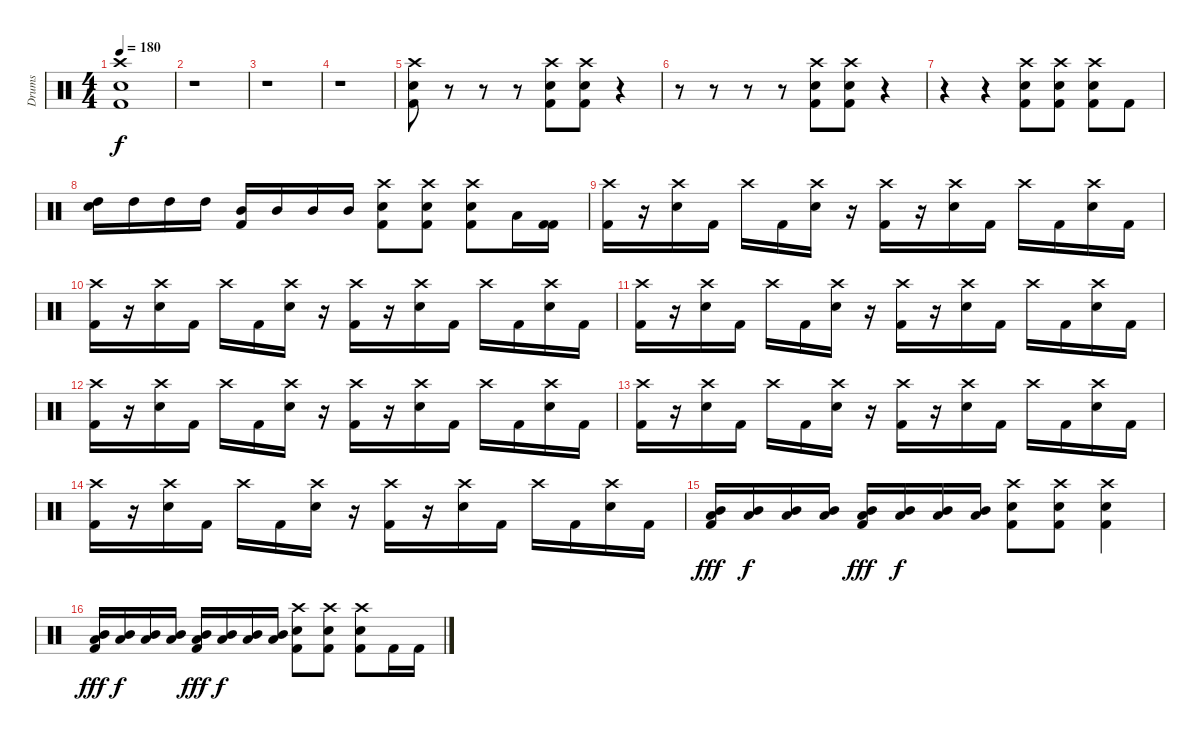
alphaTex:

\track ("Drums" "Drums") {instrument percussion}
\staff {score}
\articulation defaults
\ts (4 4)
\tempo 180
\clef neutral
\ks c
("Crash high (hit)" "Electric Snare (hit)" "Kick (hit) 2").1{dy f} |
r.1 |
r.1 |
r.1 |
("Crash high (hit)" "Electric Snare (hit)" "Kick (hit) 2").8 r.8 r.8 r.8 ("Crash high (hit)" "Electric Snare (hit)" "Kick (hit) 2").8 ("Crash high (hit)" "Electric Snare (hit)" "Kick (hit) 2").8 r.4 |
r.8 r.8 r.8 r.8 ("Crash high (hit)" "Electric Snare (hit)" "Kick (hit) 2").8 ("Crash high (hit)" "Electric Snare (hit)" "Kick (hit) 2").8 r.4 |
r.4 r.4 ("Crash high (hit)" "Electric Snare (hit)" "Kick (hit) 2").8 ("Crash high (hit)" "Electric Snare (hit)" "Kick (hit) 2").8 ("Crash high (hit)" "Electric Snare (hit)" "Kick (hit) 2").8 "Kick (hit) 2".8 |
("Electric Snare (hit)" "High Tom (hit)").16 "High Tom (hit)".16 "High Tom (hit)".16 "High Tom (hit)".16 ("Mid Tom (hit)" "Kick (hit) 2").16 "Mid Tom (hit)".16 "Mid Tom (hit)".16 "Mid Tom (hit)".16 ("Crash high (hit)" "Electric Snare (hit)" "Kick (hit) 2").8 ("Crash high (hit)" "Electric Snare (hit)" "Kick (hit) 2").8 ("Crash high (hit)" "Electric Snare (hit)" "Kick (hit) 2").8 "Low Tom (hit)".16 ("Kick (hit) 2" "Kick (hit) 2").16 |
("Crash high (hit)" "Kick (hit) 2").16 r.16 ("Crash high (hit)" "Electric Snare (hit)").16 "Kick (hit) 2".16 "Crash high (hit)".16 "Kick (hit) 2".16 ("Crash high (hit)" "Electric Snare (hit)").16 r.16 ("Crash high (hit)" "Kick (hit) 2").16 r.16 ("Crash high (hit)" "Electric Snare (hit)").16 "Kick (hit) 2".16 "Crash high (hit)".16 "Kick (hit) 2".16 ("Crash high (hit)" "Electric Snare (hit)").16 "Kick (hit) 2".16 |
("Crash high (hit)" "Kick (hit) 2").16 r.16 ("Crash high (hit)" "Electric Snare (hit)").16 "Kick (hit) 2".16 "Crash high (hit)".16 "Kick (hit) 2".16 ("Crash high (hit)" "Electric Snare (hit)").16 r.16 ("Crash high (hit)" "Kick (hit) 2").16 r.16 ("Crash high (hit)" "Electric Snare (hit)").16 "Kick (hit) 2".16 "Crash high (hit)".16 "Kick (hit) 2".16 ("Crash high (hit)" "Electric Snare (hit)").16 "Kick (hit) 2".16 |
("Crash high (hit)" "Kick (hit) 2").16 r.16 ("Crash high (hit)" "Electric Snare (hit)").16 "Kick (hit) 2".16 "Crash high (hit)".16 "Kick (hit) 2".16 ("Crash high (hit)" "Electric Snare (hit)").16 r.16 ("Crash high (hit)" "Kick (hit) 2").16 r.16 ("Crash high (hit)" "Electric Snare (hit)").16 "Kick (hit) 2".16 "Crash high (hit)".16 "Kick (hit) 2".16 ("Crash high (hit)" "Electric Snare (hit)").16 "Kick (hit) 2".16 |
("Crash high (hit)" "Kick (hit) 2").16 r.16 ("Crash high (hit)" "Electric Snare (hit)").16 "Kick (hit) 2".16 "Crash high (hit)".16 "Kick (hit) 2".16 ("Crash high (hit)" "Electric Snare (hit)").16 r.16 ("Crash high (hit)" "Kick (hit) 2").16 r.16 ("Crash high (hit)" "Electric Snare (hit)").16 "Kick (hit) 2".16 "Crash high (hit)".16 "Kick (hit) 2".16 ("Crash high (hit)" "Electric Snare (hit)").16 "Kick (hit) 2".16 |
("Crash high (hit)" "Kick (hit) 2").16 r.16 ("Crash high (hit)" "Electric Snare (hit)").16 "Kick (hit) 2".16 "Crash high (hit)".16 "Kick (hit) 2".16 ("Crash high (hit)" "Electric Snare (hit)").16 r.16 ("Crash high (hit)" "Kick (hit) 2").16 r.16 ("Crash high (hit)" "Electric Snare (hit)").16 "Kick (hit) 2".16 "Crash high (hit)".16 "Kick (hit) 2".16 ("Crash high (hit)" "Electric Snare (hit)").16 "Kick (hit) 2".16 |
("Crash high (hit)" "Kick (hit) 2").16 r.16 ("Crash high (hit)" "Electric Snare (hit)").16 "Kick (hit) 2".16 "Crash high (hit)".16 "Kick (hit) 2".16 ("Crash high (hit)" "Electric Snare (hit)").16 r.16 ("Crash high (hit)" "Kick (hit) 2").16 r.16 ("Crash high (hit)" "Electric Snare (hit)").16 "Kick (hit) 2".16 "Crash high (hit)".16 "Kick (hit) 2".16 ("Crash high (hit)" "Electric Snare (hit)").16 "Kick (hit) 2".16 |
("Mid Tom (hit)" "Low Tom (hit)" "Kick (hit) 2").16{dy fff} ("Mid Tom (hit)" "Low Tom (hit)").16{dy f} ("Mid Tom (hit)" "Low Tom (hit)").16 ("Mid Tom (hit)" "Low Tom (hit)").16 ("Mid Tom (hit)" "Low Tom (hit)" "Kick (hit) 2").16{dy fff} ("Mid Tom (hit)" "Low Tom (hit)").16{dy f} ("Mid Tom (hit)" "Low Tom (hit)").16 ("Mid Tom (hit)" "Low Tom (hit)").16 ("Crash high (hit)" "Electric Snare (hit)" "Kick (hit) 2").8 ("Crash high (hit)" "Electric Snare (hit)" "Kick (hit) 2").8 ("Crash high (hit)" "Electric Snare (hit)" "Kick (hit) 2").4 |
("Mid Tom (hit)" "Low Tom (hit)" "Kick (hit) 2").16{dy fff} ("Mid Tom (hit)" "Low Tom (hit)").16{dy f} ("Mid Tom (hit)" "Low Tom (hit)").16 ("Mid Tom (hit)" "Low Tom (hit)").16 ("Mid Tom (hit)" "Low Tom (hit)" "Kick (hit) 2").16{dy fff} ("Mid Tom (hit)" "Low Tom (hit)").16{dy f} ("Mid Tom (hit)" "Low Tom (hit)").16 ("Mid Tom (hit)" "Low Tom (hit)").16 ("Crash high (hit)" "Electric Snare (hit)" "Kick (hit) 2").8 ("Crash high (hit)" "Electric Snare (hit)" "Kick (hit) 2").8 ("Crash high (hit)" "Electric Snare (hit)" "Kick (hit) 2").8 "Kick (hit) 2".16 "Kick (hit) 2".16
